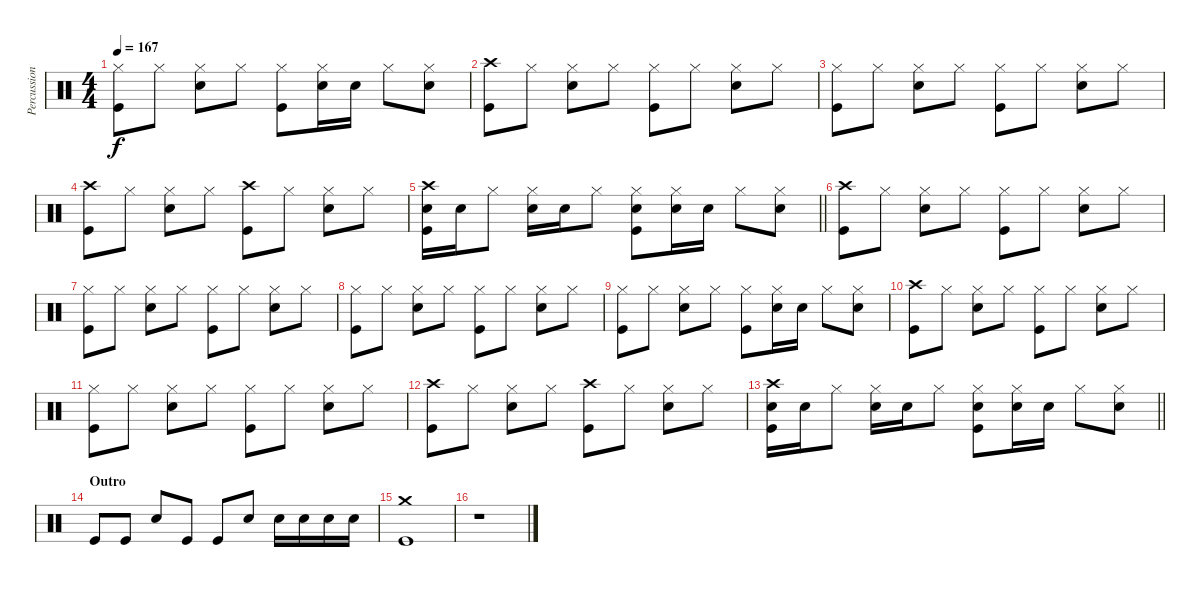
\track ("Percussion" "Percussion") {instrument percussion}
\staff {score}
\articulation defaults
\ts (4 4)
\tempo 167
\clef neutral
\ks c
("Hi-Hat (closed)" "Kick (hit)").8{dy f} "Hi-Hat (closed)".8 ("Hi-Hat (closed)" "Electric Snare (hit)").8 "Hi-Hat (closed)".8 ("Hi-Hat (closed)" "Kick (hit)").8 ("Hi-Hat (closed)" "Electric Snare (hit)").16 "Electric Snare (hit)".16 "Hi-Hat (closed)".8 ("Hi-Hat (closed)" "Electric Snare (hit)").8 |
("Crash high (hit)" "Kick (hit)").8 "Hi-Hat (closed)".8 ("Hi-Hat (closed)" "Electric Snare (hit)").8 "Hi-Hat (closed)".8 ("Hi-Hat (closed)" "Kick (hit)").8 "Hi-Hat (closed)".8 ("Hi-Hat (closed)" "Electric Snare (hit)").8 "Hi-Hat (closed)".8 |
("Hi-Hat (closed)" "Kick (hit)").8 "Hi-Hat (closed)".8 ("Hi-Hat (closed)" "Electric Snare (hit)").8 "Hi-Hat (closed)".8 ("Hi-Hat (closed)" "Kick (hit)").8 "Hi-Hat (closed)".8 ("Hi-Hat (closed)" "Electric Snare (hit)").8 "Hi-Hat (closed)".8 |
("Crash high (hit)" "Kick (hit)").8 "Hi-Hat (closed)".8 ("Hi-Hat (closed)" "Electric Snare (hit)").8 "Hi-Hat (closed)".8 ("Crash high (hit)" "Kick (hit)").8 "Hi-Hat (closed)".8 ("Hi-Hat (closed)" "Electric Snare (hit)").8 "Hi-Hat (closed)".8 |
\barLineRight lightlight
("Crash high (hit)" "Electric Snare (hit)" "Kick (hit)").16 "Electric Snare (hit)".16 "Hi-Hat (closed)".8 ("Hi-Hat (closed)" "Electric Snare (hit)").16 "Electric Snare (hit)".16 "Hi-Hat (closed)".8 ("Hi-Hat (closed)" "Electric Snare (hit)" "Kick (hit)").8 ("Hi-Hat (closed)" "Electric Snare (hit)").16 "Electric Snare (hit)".16 "Hi-Hat (closed)".8 ("Hi-Hat (closed)" "Electric Snare (hit)").8 |
("Crash high (hit)" "Kick (hit)").8 "Hi-Hat (closed)".8 ("Hi-Hat (closed)" "Electric Snare (hit)").8 "Hi-Hat (closed)".8 ("Hi-Hat (closed)" "Kick (hit)").8 "Hi-Hat (closed)".8 ("Hi-Hat (closed)" "Electric Snare (hit)").8 "Hi-Hat (closed)".8 |
("Hi-Hat (closed)" "Kick (hit)").8 "Hi-Hat (closed)".8 ("Hi-Hat (closed)" "Electric Snare (hit)").8 "Hi-Hat (closed)".8 ("Hi-Hat (closed)" "Kick (hit)").8 "Hi-Hat (closed)".8 ("Hi-Hat (closed)" "Electric Snare (hit)").8 "Hi-Hat (closed)".8 |
("Hi-Hat (closed)" "Kick (hit)").8 "Hi-Hat (closed)".8 ("Hi-Hat (closed)" "Electric Snare (hit)").8 "Hi-Hat (closed)".8 ("Hi-Hat (closed)" "Kick (hit)").8 "Hi-Hat (closed)".8 ("Hi-Hat (closed)" "Electric Snare (hit)").8 "Hi-Hat (closed)".8 |
("Hi-Hat (closed)" "Kick (hit)").8 "Hi-Hat (closed)".8 ("Hi-Hat (closed)" "Electric Snare (hit)").8 "Hi-Hat (closed)".8 ("Hi-Hat (closed)" "Kick (hit)").8 ("Hi-Hat (closed)" "Electric Snare (hit)").16 "Electric Snare (hit)".16 "Hi-Hat (closed)".8 ("Hi-Hat (closed)" "Electric Snare (hit)").8 |
("Crash high (hit)" "Kick (hit)").8 "Hi-Hat (closed)".8 ("Hi-Hat (closed)" "Electric Snare (hit)").8 "Hi-Hat (closed)".8 ("Hi-Hat (closed)" "Kick (hit)").8 "Hi-Hat (closed)".8 ("Hi-Hat (closed)" "Electric Snare (hit)").8 "Hi-Hat (closed)".8 |
("Hi-Hat (closed)" "Kick (hit)").8 "Hi-Hat (closed)".8 ("Hi-Hat (closed)" "Electric Snare (hit)").8 "Hi-Hat (closed)".8 ("Hi-Hat (closed)" "Kick (hit)").8 "Hi-Hat (closed)".8 ("Hi-Hat (closed)" "Electric Snare (hit)").8 "Hi-Hat (closed)".8 |
("Crash high (hit)" "Kick (hit)").8 "Hi-Hat (closed)".8 ("Hi-Hat (closed)" "Electric Snare (hit)").8 "Hi-Hat (closed)".8 ("Crash high (hit)" "Kick (hit)").8 "Hi-Hat (closed)".8 ("Hi-Hat (closed)" "Electric Snare (hit)").8 "Hi-Hat (closed)".8 |
\barLineRight lightlight
("Crash high (hit)" "Electric Snare (hit)" "Kick (hit)").16 "Electric Snare (hit)".16 "Hi-Hat (closed)".8 ("Hi-Hat (closed)" "Electric Snare (hit)").16 "Electric Snare (hit)".16 "Hi-Hat (closed)".8 ("Hi-Hat (closed)" "Electric Snare (hit)" "Kick (hit)").8 ("Hi-Hat (closed)" "Electric Snare (hit)").16 "Electric Snare (hit)".16 "Hi-Hat (closed)".8 ("Hi-Hat (closed)" "Electric Snare (hit)").8 |
\section ("" "Outro")
"Kick (hit)".8 "Kick (hit)".8 "Electric Snare (hit)".8 "Kick (hit)".8 "Kick (hit)".8 "Electric Snare (hit)".8 "Electric Snare (hit)".16 "Electric Snare (hit)".16 "Electric Snare (hit)".16 "Electric Snare (hit)".16 |
("Crash medium (hit)" "Kick (hit)").1 |
r.1
